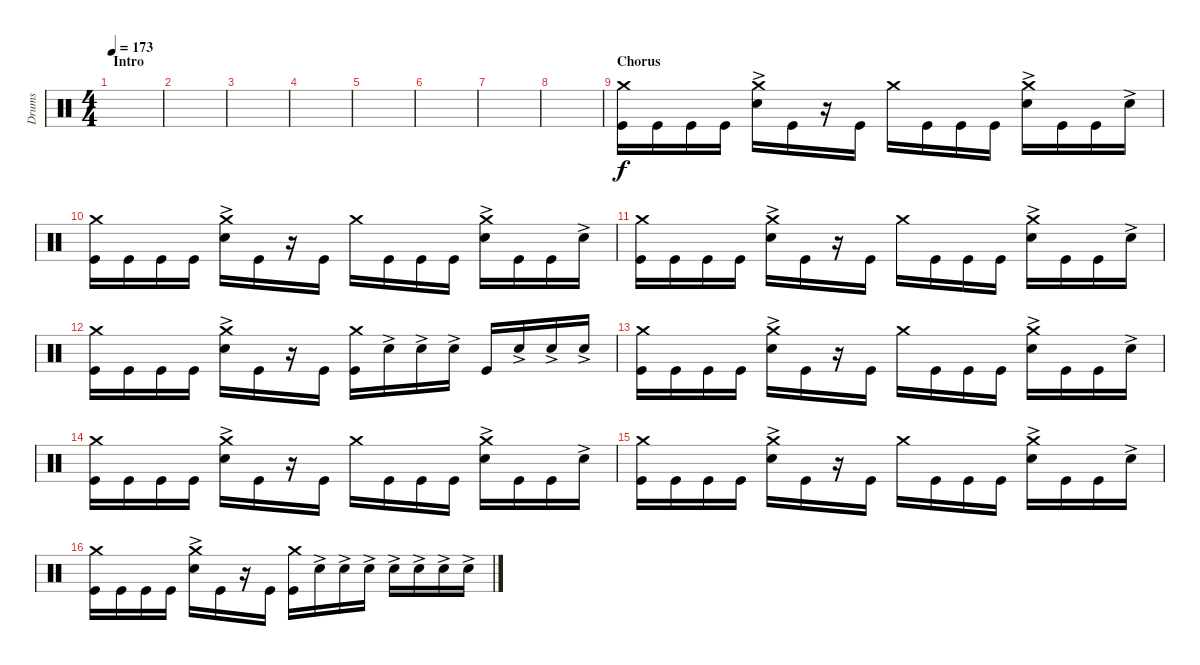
\track ("Drums" "Drums") {instrument percussion}
\staff {score}
\articulation defaults
\ts (4 4)
\section ("" "Intro")
\tempo 173
\clef neutral
\ks c
|
|
|
|
|
|
|
|
\section ("" "Chorus")
("Crash medium (hit)" "Kick (hit)").16 "Kick (hit)".16 "Kick (hit)".16 "Kick (hit)".16 ("Crash medium (hit)" "Snare (hit) 2"{ac}).16 "Kick (hit)".16 r.16 "Kick (hit)".16 "Crash medium (hit)".16 "Kick (hit)".16 "Kick (hit)".16 "Kick (hit)".16 ("Crash medium (hit)" "Snare (hit) 2"{ac}).16 "Kick (hit)".16 "Kick (hit)".16 "Snare (hit) 2"{ac}.16 |
("Crash medium (hit)" "Kick (hit)").16 "Kick (hit)".16 "Kick (hit)".16 "Kick (hit)".16 ("Crash medium (hit)" "Snare (hit) 2"{ac}).16 "Kick (hit)".16 r.16 "Kick (hit)".16 "Crash medium (hit)".16 "Kick (hit)".16 "Kick (hit)".16 "Kick (hit)".16 ("Crash medium (hit)" "Snare (hit) 2"{ac}).16 "Kick (hit)".16 "Kick (hit)".16 "Snare (hit) 2"{ac}.16 |
("Crash medium (hit)" "Kick (hit)").16 "Kick (hit)".16 "Kick (hit)".16 "Kick (hit)".16 ("Crash medium (hit)" "Snare (hit) 2"{ac}).16 "Kick (hit)".16 r.16 "Kick (hit)".16 "Crash medium (hit)".16 "Kick (hit)".16 "Kick (hit)".16 "Kick (hit)".16 ("Crash medium (hit)" "Snare (hit) 2"{ac}).16 "Kick (hit)".16 "Kick (hit)".16 "Snare (hit) 2"{ac}.16 |
("Crash medium (hit)" "Kick (hit)").16 "Kick (hit)".16 "Kick (hit)".16 "Kick (hit)".16 ("Crash medium (hit)" "Snare (hit) 2"{ac}).16 "Kick (hit)".16 r.16 "Kick (hit)".16 ("Kick (hit)" "Crash medium (hit)").16 "Snare (hit) 2"{ac}.16 "Snare (hit) 2"{ac}.16 "Snare (hit) 2"{ac}.16 "Kick (hit)".16 "Snare (hit) 2"{ac}.16 "Snare (hit) 2"{ac}.16 "Snare (hit) 2"{ac}.16 |
("Crash medium (hit)" "Kick (hit)").16 "Kick (hit)".16 "Kick (hit)".16 "Kick (hit)".16 ("Crash medium (hit)" "Snare (hit) 2"{ac}).16 "Kick (hit)".16 r.16 "Kick (hit)".16 "Crash medium (hit)".16 "Kick (hit)".16 "Kick (hit)".16 "Kick (hit)".16 ("Crash medium (hit)" "Snare (hit) 2"{ac}).16 "Kick (hit)".16 "Kick (hit)".16 "Snare (hit) 2"{ac}.16 |
("Crash medium (hit)" "Kick (hit)").16 "Kick (hit)".16 "Kick (hit)".16 "Kick (hit)".16 ("Crash medium (hit)" "Snare (hit) 2"{ac}).16 "Kick (hit)".16 r.16 "Kick (hit)".16 "Crash medium (hit)".16 "Kick (hit)".16 "Kick (hit)".16 "Kick (hit)".16 ("Crash medium (hit)" "Snare (hit) 2"{ac}).16 "Kick (hit)".16 "Kick (hit)".16 "Snare (hit) 2"{ac}.16 |
("Crash medium (hit)" "Kick (hit)").16 "Kick (hit)".16 "Kick (hit)".16 "Kick (hit)".16 ("Crash medium (hit)" "Snare (hit) 2"{ac}).16 "Kick (hit)".16 r.16 "Kick (hit)".16 "Crash medium (hit)".16 "Kick (hit)".16 "Kick (hit)".16 "Kick (hit)".16 ("Crash medium (hit)" "Snare (hit) 2"{ac}).16 "Kick (hit)".16 "Kick (hit)".16 "Snare (hit) 2"{ac}.16 |
("Crash medium (hit)" "Kick (hit)").16 "Kick (hit)".16 "Kick (hit)".16 "Kick (hit)".16 ("Crash medium (hit)" "Snare (hit) 2"{ac}).16 "Kick (hit)".16 r.16 "Kick (hit)".16 ("Kick (hit)" "Crash medium (hit)").16 "Snare (hit) 2"{ac}.16 "Snare (hit) 2"{ac}.16 "Snare (hit) 2"{ac}.16 "Snare (hit) 2"{ac}.16 "Snare (hit) 2"{ac}.16 "Snare (hit) 2"{ac}.16 "Snare (hit) 2"{ac}.16
